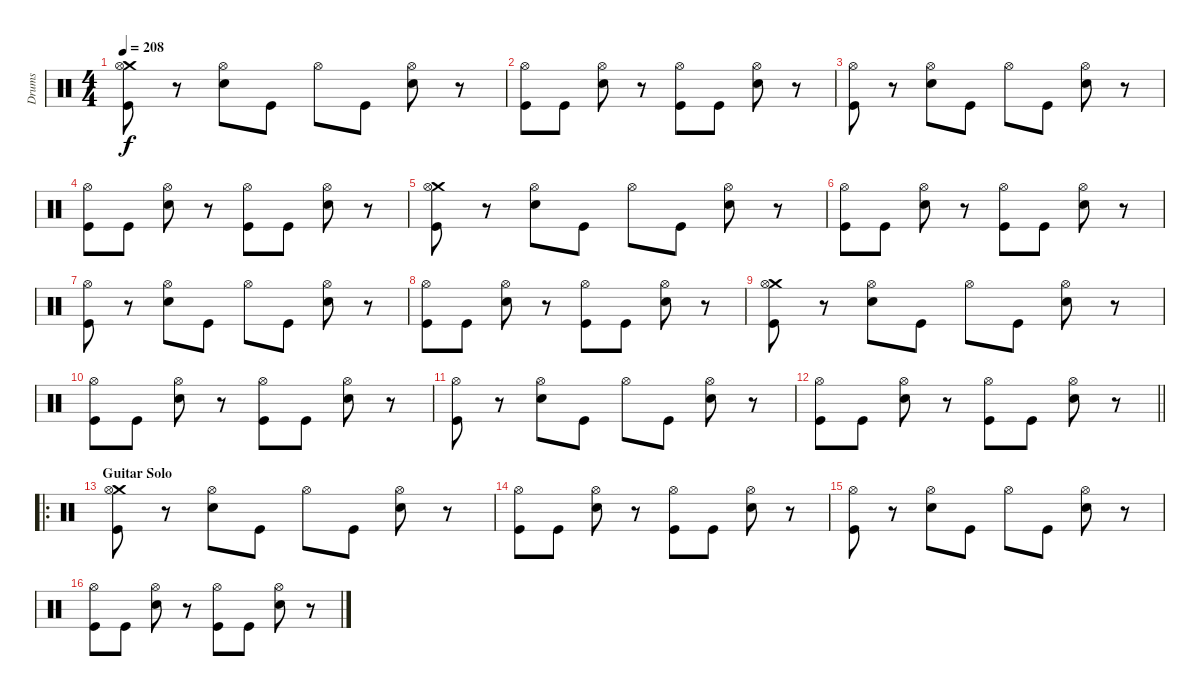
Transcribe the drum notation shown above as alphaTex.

\track ("Drums" "Drums") {instrument percussion}
\staff {score}
\articulation defaults
\ts (4 4)
\tempo 208
\clef neutral
\ks c
("Crash medium (hit)" "Hi-Hat (open)" "Kick (hit)").8{dy f} r.8 ("Hi-Hat (open)" "Electric Snare (hit)").8 "Kick (hit)".8 "Hi-Hat (open)".8 "Kick (hit)".8 ("Hi-Hat (open)" "Electric Snare (hit)").8 r.8 |
("Hi-Hat (open)" "Kick (hit)").8 "Kick (hit)".8 ("Hi-Hat (open)" "Electric Snare (hit)").8 r.8 ("Hi-Hat (open)" "Kick (hit)").8 "Kick (hit)".8 ("Hi-Hat (open)" "Electric Snare (hit)").8 r.8 |
("Hi-Hat (open)" "Kick (hit)").8 r.8 ("Hi-Hat (open)" "Electric Snare (hit)").8 "Kick (hit)".8 "Hi-Hat (open)".8 "Kick (hit)".8 ("Hi-Hat (open)" "Electric Snare (hit)").8 r.8 |
("Hi-Hat (open)" "Kick (hit)").8 "Kick (hit)".8 ("Hi-Hat (open)" "Electric Snare (hit)").8 r.8 ("Hi-Hat (open)" "Kick (hit)").8 "Kick (hit)".8 ("Hi-Hat (open)" "Electric Snare (hit)").8 r.8 |
("Crash medium (hit)" "Hi-Hat (open)" "Kick (hit)").8 r.8 ("Hi-Hat (open)" "Electric Snare (hit)").8 "Kick (hit)".8 "Hi-Hat (open)".8 "Kick (hit)".8 ("Hi-Hat (open)" "Electric Snare (hit)").8 r.8 |
("Hi-Hat (open)" "Kick (hit)").8 "Kick (hit)".8 ("Hi-Hat (open)" "Electric Snare (hit)").8 r.8 ("Hi-Hat (open)" "Kick (hit)").8 "Kick (hit)".8 ("Hi-Hat (open)" "Electric Snare (hit)").8 r.8 |
("Hi-Hat (open)" "Kick (hit)").8 r.8 ("Hi-Hat (open)" "Electric Snare (hit)").8 "Kick (hit)".8 "Hi-Hat (open)".8 "Kick (hit)".8 ("Hi-Hat (open)" "Electric Snare (hit)").8 r.8 |
("Hi-Hat (open)" "Kick (hit)").8 "Kick (hit)".8 ("Hi-Hat (open)" "Electric Snare (hit)").8 r.8 ("Hi-Hat (open)" "Kick (hit)").8 "Kick (hit)".8 ("Hi-Hat (open)" "Electric Snare (hit)").8 r.8 |
("Crash medium (hit)" "Hi-Hat (open)" "Kick (hit)").8 r.8 ("Hi-Hat (open)" "Electric Snare (hit)").8 "Kick (hit)".8 "Hi-Hat (open)".8 "Kick (hit)".8 ("Hi-Hat (open)" "Electric Snare (hit)").8 r.8 |
("Hi-Hat (open)" "Kick (hit)").8 "Kick (hit)".8 ("Hi-Hat (open)" "Electric Snare (hit)").8 r.8 ("Hi-Hat (open)" "Kick (hit)").8 "Kick (hit)".8 ("Hi-Hat (open)" "Electric Snare (hit)").8 r.8 |
("Hi-Hat (open)" "Kick (hit)").8 r.8 ("Hi-Hat (open)" "Electric Snare (hit)").8 "Kick (hit)".8 "Hi-Hat (open)".8 "Kick (hit)".8 ("Hi-Hat (open)" "Electric Snare (hit)").8 r.8 |
\barLineRight lightlight
("Hi-Hat (open)" "Kick (hit)").8 "Kick (hit)".8 ("Hi-Hat (open)" "Electric Snare (hit)").8 r.8 ("Hi-Hat (open)" "Kick (hit)").8 "Kick (hit)".8 ("Hi-Hat (open)" "Electric Snare (hit)").8 r.8 |
\ro
\section ("" "Guitar Solo")
("Crash medium (hit)" "Hi-Hat (open)" "Kick (hit)").8 r.8 ("Hi-Hat (open)" "Electric Snare (hit)").8 "Kick (hit)".8 "Hi-Hat (open)".8 "Kick (hit)".8 ("Hi-Hat (open)" "Electric Snare (hit)").8 r.8 |
("Hi-Hat (open)" "Kick (hit)").8 "Kick (hit)".8 ("Hi-Hat (open)" "Electric Snare (hit)").8 r.8 ("Hi-Hat (open)" "Kick (hit)").8 "Kick (hit)".8 ("Hi-Hat (open)" "Electric Snare (hit)").8 r.8 |
("Hi-Hat (open)" "Kick (hit)").8 r.8 ("Hi-Hat (open)" "Electric Snare (hit)").8 "Kick (hit)".8 "Hi-Hat (open)".8 "Kick (hit)".8 ("Hi-Hat (open)" "Electric Snare (hit)").8 r.8 |
("Hi-Hat (open)" "Kick (hit)").8 "Kick (hit)".8 ("Hi-Hat (open)" "Electric Snare (hit)").8 r.8 ("Hi-Hat (open)" "Kick (hit)").8 "Kick (hit)".8 ("Hi-Hat (open)" "Electric Snare (hit)").8 r.8
